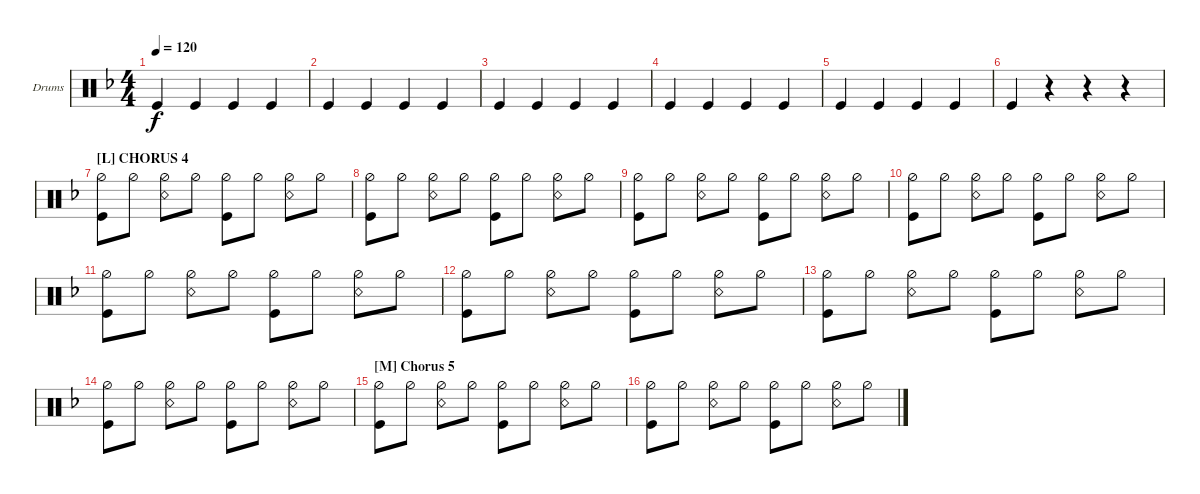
\bracketExtendMode groupsimilarinstruments
\firstSystemTrackNameOrientation horizontal
\otherSystemsTrackNameOrientation horizontal
\track ("Drumkit" "Drums") {instrument percussion}
\staff {score}
\articulation defaults
\ts (4 4)
\tempo 120
\clef neutral
\ks f "Kick (hit)".4{dy f} "Kick (hit)".4 "Kick (hit)".4 "Kick (hit)".4
|
"Kick (hit)".4 "Kick (hit)".4 "Kick (hit)".4 "Kick (hit)".4 |
"Kick (hit)".4 "Kick (hit)".4 "Kick (hit)".4 "Kick (hit)".4 |
"Kick (hit)".4 "Kick (hit)".4 "Kick (hit)".4 "Kick (hit)".4 |
"Kick (hit)".4 "Kick (hit)".4 "Kick (hit)".4 "Kick (hit)".4 |
"Kick (hit)".4 r.4 r.4 r.4 |
\section ("L" "CHORUS 4")
("Kick (hit)" "Hi-Hat (half)").8 "Hi-Hat (half)".8 ("Hi-Hat (half)" "Snare (rim shot)").8 "Hi-Hat (half)".8 ("Hi-Hat (half)" "Kick (hit)").8 "Hi-Hat (half)".8 ("Hi-Hat (half)" "Snare (rim shot)").8 "Hi-Hat (half)".8 |
("Kick (hit)" "Hi-Hat (half)").8 "Hi-Hat (half)".8 ("Hi-Hat (half)" "Snare (rim shot)").8 "Hi-Hat (half)".8 ("Hi-Hat (half)" "Kick (hit)").8 "Hi-Hat (half)".8 ("Hi-Hat (half)" "Snare (rim shot)").8 "Hi-Hat (half)".8 |
("Kick (hit)" "Hi-Hat (half)").8 "Hi-Hat (half)".8 ("Hi-Hat (half)" "Snare (rim shot)").8 "Hi-Hat (half)".8 ("Hi-Hat (half)" "Kick (hit)").8 "Hi-Hat (half)".8 ("Hi-Hat (half)" "Snare (rim shot)").8 "Hi-Hat (half)".8 |
("Kick (hit)" "Hi-Hat (half)").8 "Hi-Hat (half)".8 ("Hi-Hat (half)" "Snare (rim shot)").8 "Hi-Hat (half)".8 ("Hi-Hat (half)" "Kick (hit)").8 "Hi-Hat (half)".8 ("Hi-Hat (half)" "Snare (rim shot)").8 "Hi-Hat (half)".8 |
("Kick (hit)" "Hi-Hat (half)").8 "Hi-Hat (half)".8 ("Hi-Hat (half)" "Snare (rim shot)").8 "Hi-Hat (half)".8 ("Hi-Hat (half)" "Kick (hit)").8 "Hi-Hat (half)".8 ("Hi-Hat (half)" "Snare (rim shot)").8 "Hi-Hat (half)".8 |
("Kick (hit)" "Hi-Hat (half)").8 "Hi-Hat (half)".8 ("Hi-Hat (half)" "Snare (rim shot)").8 "Hi-Hat (half)".8 ("Hi-Hat (half)" "Kick (hit)").8 "Hi-Hat (half)".8 ("Hi-Hat (half)" "Snare (rim shot)").8 "Hi-Hat (half)".8 |
("Kick (hit)" "Hi-Hat (half)").8 "Hi-Hat (half)".8 ("Hi-Hat (half)" "Snare (rim shot)").8 "Hi-Hat (half)".8 ("Hi-Hat (half)" "Kick (hit)").8 "Hi-Hat (half)".8 ("Hi-Hat (half)" "Snare (rim shot)").8 "Hi-Hat (half)".8 |
("Kick (hit)" "Hi-Hat (half)").8 "Hi-Hat (half)".8 ("Hi-Hat (half)" "Snare (rim shot)").8 "Hi-Hat (half)".8 ("Hi-Hat (half)" "Kick (hit)").8 "Hi-Hat (half)".8 ("Hi-Hat (half)" "Snare (rim shot)").8 "Hi-Hat (half)".8 |
\section ("M" "Chorus 5")
("Kick (hit)" "Hi-Hat (half)").8 "Hi-Hat (half)".8 ("Hi-Hat (half)" "Snare (rim shot)").8 "Hi-Hat (half)".8 ("Hi-Hat (half)" "Kick (hit)").8 "Hi-Hat (half)".8 ("Hi-Hat (half)" "Snare (rim shot)").8 "Hi-Hat (half)".8 |
("Kick (hit)" "Hi-Hat (half)").8 "Hi-Hat (half)".8 ("Hi-Hat (half)" "Snare (rim shot)").8 "Hi-Hat (half)".8 ("Hi-Hat (half)" "Kick (hit)").8 "Hi-Hat (half)".8 ("Hi-Hat (half)" "Snare (rim shot)").8 "Hi-Hat (half)".8
